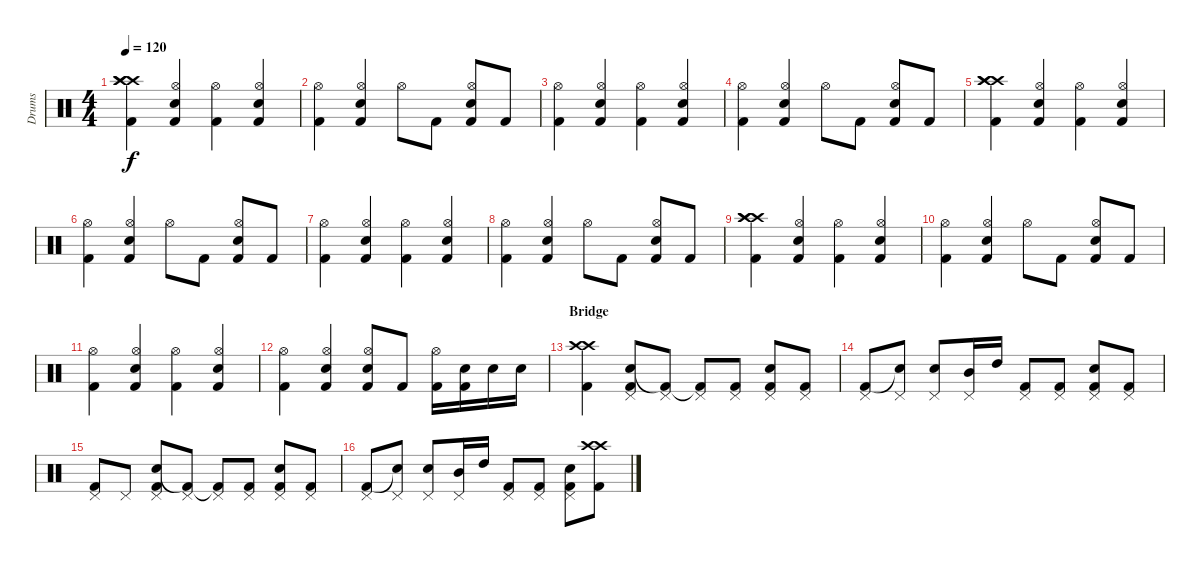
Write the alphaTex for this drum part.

\track ("Drums" "Drums") {instrument percussion}
\staff {score}
\articulation defaults
\ts (4 4)
\tempo 120
\clef neutral
\ks c
("Crash high (hit)" "Crash high (hit)" "Crash high (hit)" "Kick (hit) 2").4{dy f} ("Hi-Hat (open)" "Electric Snare (hit)" "Kick (hit) 2").4 ("Hi-Hat (open)" "Kick (hit) 2").4 ("Hi-Hat (open)" "Electric Snare (hit)" "Kick (hit) 2").4 |
("Hi-Hat (open)" "Kick (hit) 2").4 ("Hi-Hat (open)" "Electric Snare (hit)" "Kick (hit) 2").4 "Hi-Hat (open)".8 "Kick (hit) 2".8 ("Hi-Hat (open)" "Electric Snare (hit)" "Kick (hit) 2").8 "Kick (hit) 2".8 |
("Hi-Hat (open)" "Kick (hit) 2").4 ("Hi-Hat (open)" "Electric Snare (hit)" "Kick (hit) 2").4 ("Hi-Hat (open)" "Kick (hit) 2").4 ("Hi-Hat (open)" "Electric Snare (hit)" "Kick (hit) 2").4 |
("Hi-Hat (open)" "Kick (hit) 2").4 ("Hi-Hat (open)" "Electric Snare (hit)" "Kick (hit) 2").4 "Hi-Hat (open)".8 "Kick (hit) 2".8 ("Hi-Hat (open)" "Electric Snare (hit)" "Kick (hit) 2").8 "Kick (hit) 2".8 |
("Crash high (hit)" "Crash high (hit)" "Crash high (hit)" "Kick (hit) 2").4 ("Hi-Hat (open)" "Electric Snare (hit)" "Kick (hit) 2").4 ("Hi-Hat (open)" "Kick (hit) 2").4 ("Hi-Hat (open)" "Electric Snare (hit)" "Kick (hit) 2").4 |
("Hi-Hat (open)" "Kick (hit) 2").4 ("Hi-Hat (open)" "Electric Snare (hit)" "Kick (hit) 2").4 "Hi-Hat (open)".8 "Kick (hit) 2".8 ("Hi-Hat (open)" "Electric Snare (hit)" "Kick (hit) 2").8 "Kick (hit) 2".8 |
("Hi-Hat (open)" "Kick (hit) 2").4 ("Hi-Hat (open)" "Electric Snare (hit)" "Kick (hit) 2").4 ("Hi-Hat (open)" "Kick (hit) 2").4 ("Hi-Hat (open)" "Electric Snare (hit)" "Kick (hit) 2").4 |
("Hi-Hat (open)" "Kick (hit) 2").4 ("Hi-Hat (open)" "Electric Snare (hit)" "Kick (hit) 2").4 "Hi-Hat (open)".8 "Kick (hit) 2".8 ("Hi-Hat (open)" "Electric Snare (hit)" "Kick (hit) 2").8 "Kick (hit) 2".8 |
("Crash high (hit)" "Crash high (hit)" "Crash high (hit)" "Kick (hit) 2").4 ("Hi-Hat (open)" "Electric Snare (hit)" "Kick (hit) 2").4 ("Hi-Hat (open)" "Kick (hit) 2").4 ("Hi-Hat (open)" "Electric Snare (hit)" "Kick (hit) 2").4 |
("Hi-Hat (open)" "Kick (hit) 2").4 ("Hi-Hat (open)" "Electric Snare (hit)" "Kick (hit) 2").4 "Hi-Hat (open)".8 "Kick (hit) 2".8 ("Hi-Hat (open)" "Electric Snare (hit)" "Kick (hit) 2").8 "Kick (hit) 2".8 |
("Hi-Hat (open)" "Kick (hit) 2").4 ("Hi-Hat (open)" "Electric Snare (hit)" "Kick (hit) 2").4 ("Hi-Hat (open)" "Kick (hit) 2").4 ("Hi-Hat (open)" "Electric Snare (hit)" "Kick (hit) 2").4 |
("Hi-Hat (open)" "Kick (hit) 2").4 ("Hi-Hat (open)" "Electric Snare (hit)" "Kick (hit) 2").4 ("Hi-Hat (open)" "Electric Snare (hit)" "Kick (hit) 2").8 "Kick (hit) 2".8 ("Hi-Hat (open)" "Kick (hit) 2").16 ("Electric Snare (hit)" "Kick (hit) 2").16 "Electric Snare (hit)".16 "Snare (hit) 2".16 |
\section ("" "Bridge")
("Crash high (hit)" "Crash high (hit)" "Kick (hit) 2").4 ("Pedal Hi-Hat (hit)" "Electric Snare (hit)" "Kick (hit) 2").8 ("Pedal Hi-Hat (hit)" "Kick (hit) 2"{t}).8 ("Pedal Hi-Hat (hit)" "Kick (hit) 2"{t}).8 ("Pedal Hi-Hat (hit)" "Kick (hit) 2").8 ("Pedal Hi-Hat (hit)" "Electric Snare (hit)" "Kick (hit) 2").8 ("Pedal Hi-Hat (hit)" "Kick (hit) 2").8 |
("Pedal Hi-Hat (hit)" "Kick (hit) 2").8 ("Pedal Hi-Hat (hit)" "Electric Snare (hit)"{t}).8 ("Pedal Hi-Hat (hit)" "Electric Snare (hit)").8 ("Pedal Hi-Hat (hit)" "Mid Tom (hit)").16 "High Tom (hit)".16 ("Pedal Hi-Hat (hit)" "Kick (hit) 2").8 ("Pedal Hi-Hat (hit)" "Kick (hit) 2").8 ("Pedal Hi-Hat (hit)" "Electric Snare (hit)" "Kick (hit) 2").8 ("Pedal Hi-Hat (hit)" "Kick (hit) 2").8 |
("Pedal Hi-Hat (hit)" "Kick (hit) 2").8 "Pedal Hi-Hat (hit)".8 ("Pedal Hi-Hat (hit)" "Electric Snare (hit)" "Kick (hit) 2").8 ("Pedal Hi-Hat (hit)" "Kick (hit) 2"{t}).8 ("Pedal Hi-Hat (hit)" "Kick (hit) 2"{t}).8 ("Pedal Hi-Hat (hit)" "Kick (hit) 2").8 ("Pedal Hi-Hat (hit)" "Electric Snare (hit)" "Kick (hit) 2").8 ("Pedal Hi-Hat (hit)" "Kick (hit) 2").8 |
("Pedal Hi-Hat (hit)" "Kick (hit) 2").8 ("Pedal Hi-Hat (hit)" "Electric Snare (hit)"{t}).8 ("Pedal Hi-Hat (hit)" "Electric Snare (hit)").8 ("Pedal Hi-Hat (hit)" "Mid Tom (hit)").16 "High Tom (hit)".16 ("Pedal Hi-Hat (hit)" "Kick (hit) 2").8 ("Pedal Hi-Hat (hit)" "Kick (hit) 2").8 ("Pedal Hi-Hat (hit)" "Electric Snare (hit)" "Kick (hit) 2").8 ("Crash high (hit)" "Crash high (hit)" "Kick (hit) 2").8
